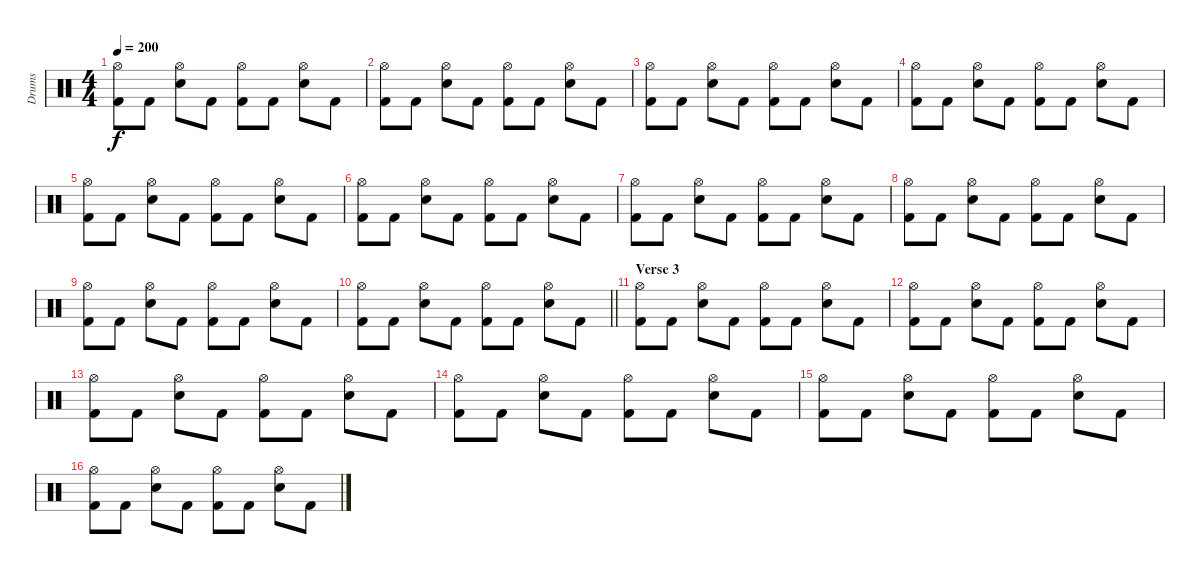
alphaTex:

\track ("Drums" "Drums") {instrument percussion}
\staff {score}
\articulation defaults
\ts (4 4)
\tempo 200
\clef neutral
\ks c
("Kick (hit) 2" "Hi-Hat (open)").8{dy f} "Kick (hit) 2".8 ("Snare (hit) 2" "Hi-Hat (open)").8 "Kick (hit) 2".8 ("Kick (hit) 2" "Hi-Hat (open)").8 "Kick (hit) 2".8 ("Snare (hit) 2" "Hi-Hat (open)").8 "Kick (hit) 2".8 |
("Kick (hit) 2" "Hi-Hat (open)").8 "Kick (hit) 2".8 ("Snare (hit) 2" "Hi-Hat (open)").8 "Kick (hit) 2".8 ("Kick (hit) 2" "Hi-Hat (open)").8 "Kick (hit) 2".8 ("Snare (hit) 2" "Hi-Hat (open)").8 "Kick (hit) 2".8 |
("Kick (hit) 2" "Hi-Hat (open)").8 "Kick (hit) 2".8 ("Snare (hit) 2" "Hi-Hat (open)").8 "Kick (hit) 2".8 ("Kick (hit) 2" "Hi-Hat (open)").8 "Kick (hit) 2".8 ("Snare (hit) 2" "Hi-Hat (open)").8 "Kick (hit) 2".8 |
("Kick (hit) 2" "Hi-Hat (open)").8 "Kick (hit) 2".8 ("Snare (hit) 2" "Hi-Hat (open)").8 "Kick (hit) 2".8 ("Kick (hit) 2" "Hi-Hat (open)").8 "Kick (hit) 2".8 ("Snare (hit) 2" "Hi-Hat (open)").8 "Kick (hit) 2".8 |
("Kick (hit) 2" "Hi-Hat (open)").8 "Kick (hit) 2".8 ("Snare (hit) 2" "Hi-Hat (open)").8 "Kick (hit) 2".8 ("Kick (hit) 2" "Hi-Hat (open)").8 "Kick (hit) 2".8 ("Snare (hit) 2" "Hi-Hat (open)").8 "Kick (hit) 2".8 |
("Kick (hit) 2" "Hi-Hat (open)").8 "Kick (hit) 2".8 ("Snare (hit) 2" "Hi-Hat (open)").8 "Kick (hit) 2".8 ("Kick (hit) 2" "Hi-Hat (open)").8 "Kick (hit) 2".8 ("Snare (hit) 2" "Hi-Hat (open)").8 "Kick (hit) 2".8 |
("Kick (hit) 2" "Hi-Hat (open)").8 "Kick (hit) 2".8 ("Snare (hit) 2" "Hi-Hat (open)").8 "Kick (hit) 2".8 ("Kick (hit) 2" "Hi-Hat (open)").8 "Kick (hit) 2".8 ("Snare (hit) 2" "Hi-Hat (open)").8 "Kick (hit) 2".8 |
("Kick (hit) 2" "Hi-Hat (open)").8 "Kick (hit) 2".8 ("Snare (hit) 2" "Hi-Hat (open)").8 "Kick (hit) 2".8 ("Kick (hit) 2" "Hi-Hat (open)").8 "Kick (hit) 2".8 ("Snare (hit) 2" "Hi-Hat (open)").8 "Kick (hit) 2".8 |
("Kick (hit) 2" "Hi-Hat (open)").8 "Kick (hit) 2".8 ("Snare (hit) 2" "Hi-Hat (open)").8 "Kick (hit) 2".8 ("Kick (hit) 2" "Hi-Hat (open)").8 "Kick (hit) 2".8 ("Snare (hit) 2" "Hi-Hat (open)").8 "Kick (hit) 2".8 |
\barLineRight lightlight
("Kick (hit) 2" "Hi-Hat (open)").8 "Kick (hit) 2".8 ("Snare (hit) 2" "Hi-Hat (open)").8 "Kick (hit) 2".8 ("Kick (hit) 2" "Hi-Hat (open)").8 "Kick (hit) 2".8 ("Snare (hit) 2" "Hi-Hat (open)").8 "Kick (hit) 2".8 |
\section ("" "Verse 3")
("Kick (hit) 2" "Hi-Hat (open)").8 "Kick (hit) 2".8 ("Snare (hit) 2" "Hi-Hat (open)").8 "Kick (hit) 2".8 ("Kick (hit) 2" "Hi-Hat (open)").8 "Kick (hit) 2".8 ("Snare (hit) 2" "Hi-Hat (open)").8 "Kick (hit) 2".8 |
("Kick (hit) 2" "Hi-Hat (open)").8 "Kick (hit) 2".8 ("Snare (hit) 2" "Hi-Hat (open)").8 "Kick (hit) 2".8 ("Kick (hit) 2" "Hi-Hat (open)").8 "Kick (hit) 2".8 ("Snare (hit) 2" "Hi-Hat (open)").8 "Kick (hit) 2".8 |
("Kick (hit) 2" "Hi-Hat (open)").8 "Kick (hit) 2".8 ("Snare (hit) 2" "Hi-Hat (open)").8 "Kick (hit) 2".8 ("Kick (hit) 2" "Hi-Hat (open)").8 "Kick (hit) 2".8 ("Snare (hit) 2" "Hi-Hat (open)").8 "Kick (hit) 2".8 |
("Kick (hit) 2" "Hi-Hat (open)").8 "Kick (hit) 2".8 ("Snare (hit) 2" "Hi-Hat (open)").8 "Kick (hit) 2".8 ("Kick (hit) 2" "Hi-Hat (open)").8 "Kick (hit) 2".8 ("Snare (hit) 2" "Hi-Hat (open)").8 "Kick (hit) 2".8 |
("Kick (hit) 2" "Hi-Hat (open)").8 "Kick (hit) 2".8 ("Snare (hit) 2" "Hi-Hat (open)").8 "Kick (hit) 2".8 ("Kick (hit) 2" "Hi-Hat (open)").8 "Kick (hit) 2".8 ("Snare (hit) 2" "Hi-Hat (open)").8 "Kick (hit) 2".8 |
("Kick (hit) 2" "Hi-Hat (open)").8 "Kick (hit) 2".8 ("Snare (hit) 2" "Hi-Hat (open)").8 "Kick (hit) 2".8 ("Kick (hit) 2" "Hi-Hat (open)").8 "Kick (hit) 2".8 ("Snare (hit) 2" "Hi-Hat (open)").8 "Kick (hit) 2".8
